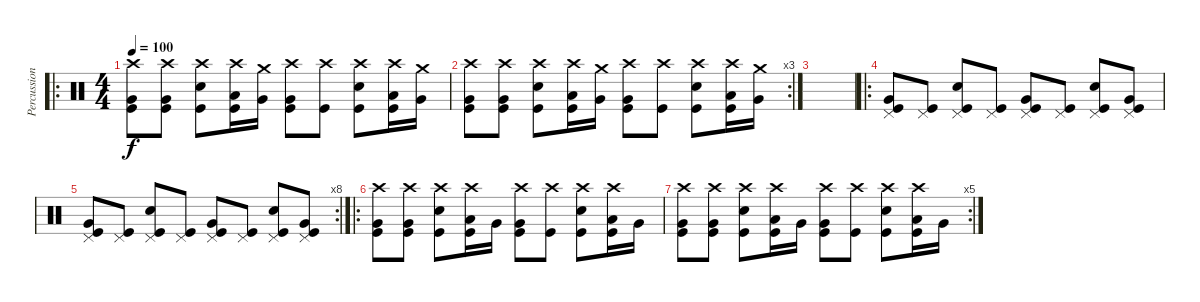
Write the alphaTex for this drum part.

\track ("Percussions" "Percussion") {instrument percussion}
\staff {score}
\articulation defaults
\ro
\ts (4 4)
\tempo 100
\clef neutral
\ks c
("Crash high (hit)" "Very Low Tom (hit)" "Kick (hit)").8{dy f} ("Crash high (hit)" "Very Low Tom (hit)" "Kick (hit)").8 ("Crash high (hit)" "Snare (hit) 2" "Kick (hit)").8 ("Crash high (hit)" "Low Floor Tom (hit)" "Kick (hit)").16 ("Crash medium (hit)" "Very Low Tom (hit)").16 ("Crash high (hit)" "Very Low Tom (hit)" "Kick (hit)").8 ("Crash high (hit)" "Kick (hit)").8 ("Crash high (hit)" "Snare (hit) 2" "Kick (hit)").8 ("Crash high (hit)" "Low Floor Tom (hit)" "Kick (hit)").16 ("Crash medium (hit)" "Very Low Tom (hit)").16 |
\rc 3
("Crash high (hit)" "Very Low Tom (hit)" "Kick (hit)").8 ("Crash high (hit)" "Very Low Tom (hit)" "Kick (hit)").8 ("Crash high (hit)" "Snare (hit) 2" "Kick (hit)").8 ("Crash high (hit)" "Low Floor Tom (hit)" "Kick (hit)").16 ("Crash medium (hit)" "Very Low Tom (hit)").16 ("Crash high (hit)" "Very Low Tom (hit)" "Kick (hit)").8 ("Crash high (hit)" "Kick (hit)").8 ("Crash high (hit)" "Snare (hit) 2" "Kick (hit)").8 ("Crash high (hit)" "Low Floor Tom (hit)" "Kick (hit)").16 ("Crash medium (hit)" "Very Low Tom (hit)").16 |
|
\ro
("Pedal Hi-Hat (hit)" "Very Low Tom (hit)" "Kick (hit)").8 ("Pedal Hi-Hat (hit)" "Kick (hit)").8 ("Pedal Hi-Hat (hit)" "Snare (hit) 2" "Kick (hit)").8 ("Pedal Hi-Hat (hit)" "Kick (hit)").8 ("Pedal Hi-Hat (hit)" "Very Low Tom (hit)" "Kick (hit)").8 ("Pedal Hi-Hat (hit)" "Kick (hit)").8 ("Pedal Hi-Hat (hit)" "Snare (hit) 2" "Kick (hit)").8 ("Pedal Hi-Hat (hit)" "Very Low Tom (hit)" "Kick (hit)").8 |
\rc 8
("Pedal Hi-Hat (hit)" "Very Low Tom (hit)" "Kick (hit)").8 ("Pedal Hi-Hat (hit)" "Kick (hit)").8 ("Pedal Hi-Hat (hit)" "Snare (hit) 2" "Kick (hit)").8 ("Pedal Hi-Hat (hit)" "Kick (hit)").8 ("Pedal Hi-Hat (hit)" "Very Low Tom (hit)" "Kick (hit)").8 ("Pedal Hi-Hat (hit)" "Kick (hit)").8 ("Pedal Hi-Hat (hit)" "Snare (hit) 2" "Kick (hit)").8 ("Pedal Hi-Hat (hit)" "Very Low Tom (hit)" "Kick (hit)").8 |
\ro
("Crash high (hit)" "Very Low Tom (hit)" "Kick (hit)").8 ("Crash high (hit)" "Very Low Tom (hit)" "Kick (hit)").8 ("Crash high (hit)" "Snare (hit) 2" "Kick (hit)").8 ("Crash high (hit)" "Low Floor Tom (hit)" "Kick (hit)").16 "Very Low Tom (hit)".16 ("Crash high (hit)" "Very Low Tom (hit)" "Kick (hit)").8 ("Crash high (hit)" "Kick (hit)").8 ("Crash high (hit)" "Snare (hit) 2" "Kick (hit)").8 ("Crash high (hit)" "Low Floor Tom (hit)" "Kick (hit)").16 "Very Low Tom (hit)".16 |
\rc 5
("Crash high (hit)" "Very Low Tom (hit)" "Kick (hit)").8 ("Crash high (hit)" "Very Low Tom (hit)" "Kick (hit)").8 ("Crash high (hit)" "Snare (hit) 2" "Kick (hit)").8 ("Crash high (hit)" "Low Floor Tom (hit)" "Kick (hit)").16 "Very Low Tom (hit)".16 ("Crash high (hit)" "Very Low Tom (hit)" "Kick (hit)").8 ("Crash high (hit)" "Kick (hit)").8 ("Crash high (hit)" "Snare (hit) 2" "Kick (hit)").8 ("Crash high (hit)" "Low Floor Tom (hit)" "Kick (hit)").16 "Very Low Tom (hit)".16
